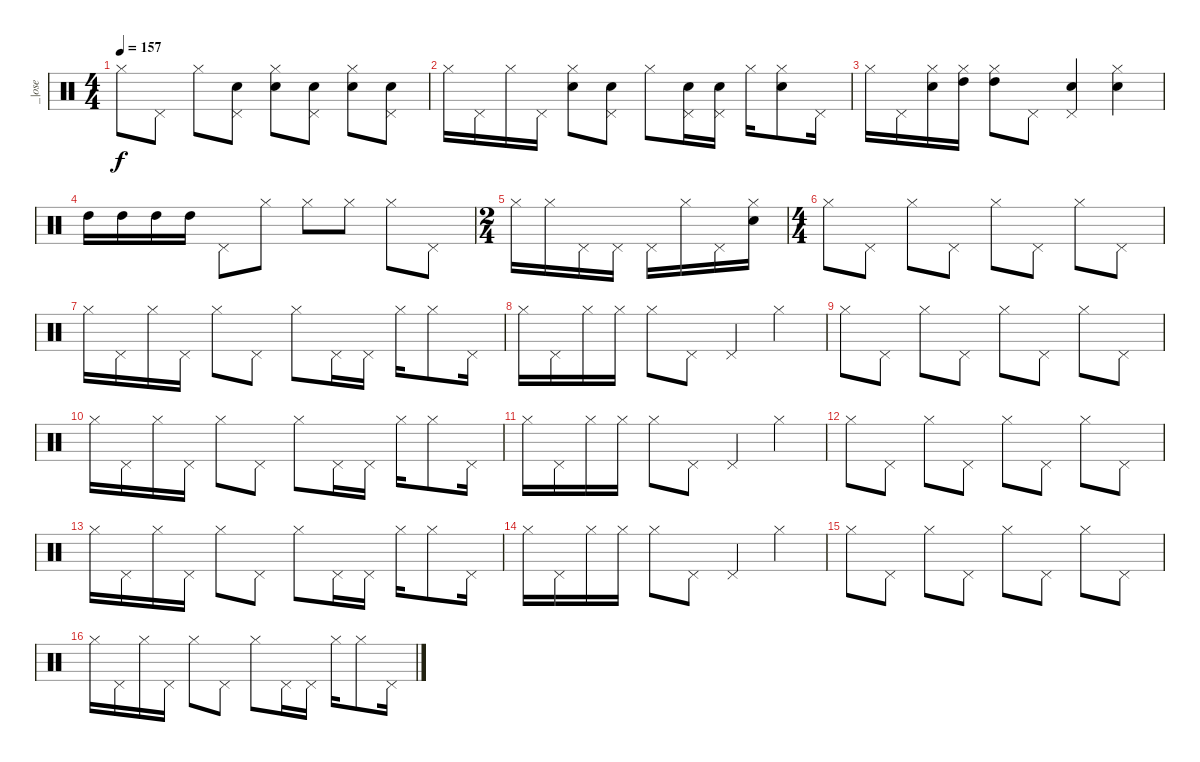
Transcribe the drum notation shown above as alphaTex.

\track ("_|ose" "_|ose") {instrument percussion}
\staff {score}
\articulation defaults
\ts (4 4)
\tempo 157
\clef neutral
\ks c "Hi-Hat (closed)".8{dy f} "Pedal Hi-Hat (hit)".8 "Hi-Hat (closed)".8
("Electric Snare (hit)" "Pedal Hi-Hat (hit)").8 ("Electric Snare (hit)" "Hi-Hat (closed)").8 ("Electric Snare (hit)" "Pedal Hi-Hat (hit)").8 ("Electric Snare (hit)" "Hi-Hat (closed)").8 ("Electric Snare (hit)" "Pedal Hi-Hat (hit)").8 |
"Hi-Hat (closed)".16 "Pedal Hi-Hat (hit)".16 "Hi-Hat (closed)".16 "Pedal Hi-Hat (hit)".16 ("Electric Snare (hit)" "Hi-Hat (closed)").8 ("Electric Snare (hit)" "Pedal Hi-Hat (hit)").8 "Hi-Hat (closed)".8 ("Electric Snare (hit)" "Pedal Hi-Hat (hit)").16 ("Electric Snare (hit)" "Pedal Hi-Hat (hit)").16 "Hi-Hat (closed)".16 ("Electric Snare (hit)" "Hi-Hat (closed)").8 "Pedal Hi-Hat (hit)".16 |
"Hi-Hat (closed)".16 "Pedal Hi-Hat (hit)".16 ("Electric Snare (hit)" "Hi-Hat (closed)").16 ("High Tom (hit)" "Hi-Hat (closed)").16 ("High Tom (hit)" "Hi-Hat (closed)").8 "Pedal Hi-Hat (hit)".8 ("Electric Snare (hit)" "Pedal Hi-Hat (hit)").4 ("Electric Snare (hit)" "Hi-Hat (closed)").4 |
"High Tom (hit)".16 "High Tom (hit)".16 "High Tom (hit)".16 "High Tom (hit)".16 "Pedal Hi-Hat (hit)".8 "Hi-Hat (closed)".8 "Hi-Hat (closed)".8 "Hi-Hat (closed)".8 "Hi-Hat (closed)".8 "Pedal Hi-Hat (hit)".8 |
\ts (2 4)
"Hi-Hat (closed)".16 "Hi-Hat (closed)".16 "Pedal Hi-Hat (hit)".16 "Pedal Hi-Hat (hit)".16 "Pedal Hi-Hat (hit)".16 "Hi-Hat (closed)".16 "Pedal Hi-Hat (hit)".16 ("Electric Snare (hit)" "Hi-Hat (closed)").16 |
\ts (4 4)
"Hi-Hat (closed)".8 "Pedal Hi-Hat (hit)".8 "Hi-Hat (closed)".8 "Pedal Hi-Hat (hit)".8 "Hi-Hat (closed)".8 "Pedal Hi-Hat (hit)".8 "Hi-Hat (closed)".8 "Pedal Hi-Hat (hit)".8 |
"Hi-Hat (closed)".16 "Pedal Hi-Hat (hit)".16 "Hi-Hat (closed)".16 "Pedal Hi-Hat (hit)".16 "Hi-Hat (closed)".8 "Pedal Hi-Hat (hit)".8 "Hi-Hat (closed)".8 "Pedal Hi-Hat (hit)".16 "Pedal Hi-Hat (hit)".16 "Hi-Hat (closed)".16 "Hi-Hat (closed)".8 "Pedal Hi-Hat (hit)".16 |
"Hi-Hat (closed)".16 "Pedal Hi-Hat (hit)".16 "Hi-Hat (closed)".16 "Hi-Hat (closed)".16 "Hi-Hat (closed)".8 "Pedal Hi-Hat (hit)".8 "Pedal Hi-Hat (hit)".4 "Hi-Hat (closed)".4 |
"Hi-Hat (closed)".8 "Pedal Hi-Hat (hit)".8 "Hi-Hat (closed)".8 "Pedal Hi-Hat (hit)".8 "Hi-Hat (closed)".8 "Pedal Hi-Hat (hit)".8 "Hi-Hat (closed)".8 "Pedal Hi-Hat (hit)".8 |
"Hi-Hat (closed)".16 "Pedal Hi-Hat (hit)".16 "Hi-Hat (closed)".16 "Pedal Hi-Hat (hit)".16 "Hi-Hat (closed)".8 "Pedal Hi-Hat (hit)".8 "Hi-Hat (closed)".8 "Pedal Hi-Hat (hit)".16 "Pedal Hi-Hat (hit)".16 "Hi-Hat (closed)".16 "Hi-Hat (closed)".8 "Pedal Hi-Hat (hit)".16 |
"Hi-Hat (closed)".16 "Pedal Hi-Hat (hit)".16 "Hi-Hat (closed)".16 "Hi-Hat (closed)".16 "Hi-Hat (closed)".8 "Pedal Hi-Hat (hit)".8 "Pedal Hi-Hat (hit)".4 "Hi-Hat (closed)".4 |
"Hi-Hat (closed)".8 "Pedal Hi-Hat (hit)".8 "Hi-Hat (closed)".8 "Pedal Hi-Hat (hit)".8 "Hi-Hat (closed)".8 "Pedal Hi-Hat (hit)".8 "Hi-Hat (closed)".8 "Pedal Hi-Hat (hit)".8 |
"Hi-Hat (closed)".16 "Pedal Hi-Hat (hit)".16 "Hi-Hat (closed)".16 "Pedal Hi-Hat (hit)".16 "Hi-Hat (closed)".8 "Pedal Hi-Hat (hit)".8 "Hi-Hat (closed)".8 "Pedal Hi-Hat (hit)".16 "Pedal Hi-Hat (hit)".16 "Hi-Hat (closed)".16 "Hi-Hat (closed)".8 "Pedal Hi-Hat (hit)".16 |
"Hi-Hat (closed)".16 "Pedal Hi-Hat (hit)".16 "Hi-Hat (closed)".16 "Hi-Hat (closed)".16 "Hi-Hat (closed)".8 "Pedal Hi-Hat (hit)".8 "Pedal Hi-Hat (hit)".4 "Hi-Hat (closed)".4 |
"Hi-Hat (closed)".8 "Pedal Hi-Hat (hit)".8 "Hi-Hat (closed)".8 "Pedal Hi-Hat (hit)".8 "Hi-Hat (closed)".8 "Pedal Hi-Hat (hit)".8 "Hi-Hat (closed)".8 "Pedal Hi-Hat (hit)".8 |
"Hi-Hat (closed)".16 "Pedal Hi-Hat (hit)".16 "Hi-Hat (closed)".16 "Pedal Hi-Hat (hit)".16 "Hi-Hat (closed)".8 "Pedal Hi-Hat (hit)".8 "Hi-Hat (closed)".8 "Pedal Hi-Hat (hit)".16 "Pedal Hi-Hat (hit)".16 "Hi-Hat (closed)".16 "Hi-Hat (closed)".8 "Pedal Hi-Hat (hit)".16
